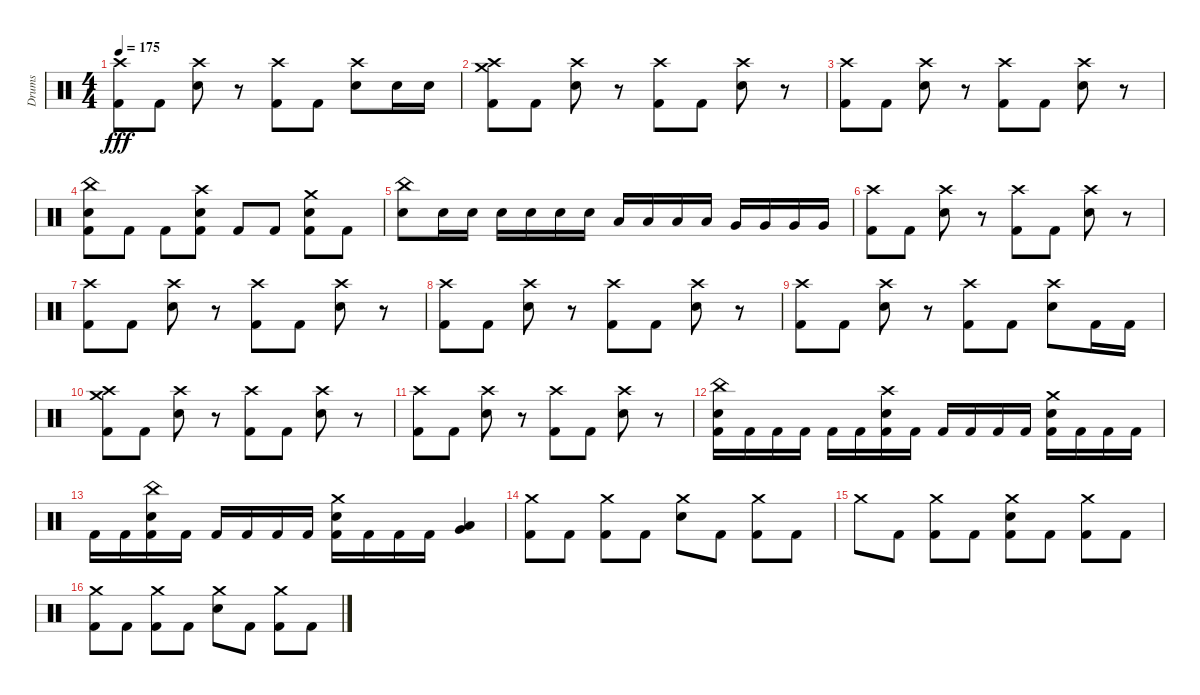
\track ("Drums" "Drums") {instrument percussion}
\staff {score}
\articulation defaults
\ts (4 4)
\tempo 175
\clef neutral
\ks c
("Crash high (hit)" "Kick (hit) 2").8{dy fff} "Kick (hit) 2".8 ("Crash high (hit)" "Snare (hit) 2").8 r.8 ("Crash high (hit)" "Kick (hit) 2").8 "Kick (hit) 2".8 ("Crash high (hit)" "Snare (hit) 2").8 "Snare (hit) 2".16 "Snare (hit) 2".16 |
("Crash high (hit)" "Crash medium (hit)" "Kick (hit) 2").8 "Kick (hit) 2".8 ("Crash high (hit)" "Snare (hit) 2").8 r.8 ("Crash high (hit)" "Kick (hit) 2").8 "Kick (hit) 2".8 ("Crash high (hit)" "Snare (hit) 2").8 r.8 |
("Crash high (hit)" "Kick (hit) 2").8 "Kick (hit) 2".8 ("Crash high (hit)" "Snare (hit) 2").8 r.8 ("Crash high (hit)" "Kick (hit) 2").8 "Kick (hit) 2".8 ("Crash high (hit)" "Snare (hit) 2").8 r.8 |
("China (hit)" "Snare (hit) 2" "Kick (hit) 2").8 "Kick (hit) 2".8 "Kick (hit) 2".8 ("Crash high (hit)" "Snare (hit) 2" "Kick (hit) 2").8 "Kick (hit) 2".8 "Kick (hit) 2".8 ("Crash medium (hit)" "Snare (hit) 2" "Kick (hit) 2").8 "Kick (hit) 2".8 |
("China (hit)" "Snare (hit) 2").8 "Snare (hit) 2".16 "Snare (hit) 2".16 "Snare (hit) 2".16 "Snare (hit) 2".16 "Snare (hit) 2".16 "Snare (hit) 2".16 "Low Tom (hit)".16 "Low Tom (hit)".16 "Low Tom (hit)".16 "Low Tom (hit)".16 "Very Low Tom (hit)".16 "Very Low Tom (hit)".16 "Very Low Tom (hit)".16 "Very Low Tom (hit)".16 |
("Crash high (hit)" "Kick (hit) 2").8 "Kick (hit) 2".8 ("Crash high (hit)" "Snare (hit) 2").8 r.8 ("Crash high (hit)" "Kick (hit) 2").8 "Kick (hit) 2".8 ("Crash high (hit)" "Snare (hit) 2").8 r.8 |
("Crash high (hit)" "Kick (hit) 2").8 "Kick (hit) 2".8 ("Crash high (hit)" "Snare (hit) 2").8 r.8 ("Crash high (hit)" "Kick (hit) 2").8 "Kick (hit) 2".8 ("Crash high (hit)" "Snare (hit) 2").8 r.8 |
("Crash high (hit)" "Kick (hit) 2").8 "Kick (hit) 2".8 ("Crash high (hit)" "Snare (hit) 2").8 r.8 ("Crash high (hit)" "Kick (hit) 2").8 "Kick (hit) 2".8 ("Crash high (hit)" "Snare (hit) 2").8 r.8 |
("Crash high (hit)" "Kick (hit) 2").8 "Kick (hit) 2".8 ("Crash high (hit)" "Snare (hit) 2").8 r.8 ("Crash high (hit)" "Kick (hit) 2").8 "Kick (hit) 2".8 ("Crash high (hit)" "Snare (hit) 2").8 "Kick (hit) 2".16 "Kick (hit) 2".16 |
("Crash high (hit)" "Crash medium (hit)" "Kick (hit) 2").8 "Kick (hit) 2".8 ("Crash high (hit)" "Snare (hit) 2").8 r.8 ("Crash high (hit)" "Kick (hit) 2").8 "Kick (hit) 2".8 ("Crash high (hit)" "Snare (hit) 2").8 r.8 |
("Crash high (hit)" "Kick (hit) 2").8 "Kick (hit) 2".8 ("Crash high (hit)" "Snare (hit) 2").8 r.8 ("Crash high (hit)" "Kick (hit) 2").8 "Kick (hit) 2".8 ("Crash high (hit)" "Snare (hit) 2").8 r.8 |
("China (hit)" "Snare (hit) 2" "Kick (hit) 2").16 "Kick (hit) 2".16 "Kick (hit) 2".16 "Kick (hit) 2".16 "Kick (hit) 2".16 "Kick (hit) 2".16 ("Crash high (hit)" "Snare (hit) 2" "Kick (hit) 2").16 "Kick (hit) 2".16 "Kick (hit) 2".16 "Kick (hit) 2".16 "Kick (hit) 2".16 "Kick (hit) 2".16 ("Crash medium (hit)" "Snare (hit) 2" "Kick (hit) 2").16 "Kick (hit) 2".16 "Kick (hit) 2".16 "Kick (hit) 2".16 |
"Kick (hit) 2".16 "Kick (hit) 2".16 ("China (hit)" "Snare (hit) 2" "Kick (hit) 2").16 "Kick (hit) 2".16 "Kick (hit) 2".16 "Kick (hit) 2".16 "Kick (hit) 2".16 "Kick (hit) 2".16 ("Crash medium (hit)" "Snare (hit) 2" "Kick (hit) 2").16 "Kick (hit) 2".16 "Kick (hit) 2".16 "Kick (hit) 2".16 ("Low Tom (hit)" "Very Low Tom (hit)").4 |
("Crash medium (hit)" "Kick (hit) 2").8 "Kick (hit) 2".8 ("Crash medium (hit)" "Kick (hit) 2").8 "Kick (hit) 2".8 ("Crash medium (hit)" "Snare (hit) 2").8 "Kick (hit) 2".8 ("Crash medium (hit)" "Kick (hit) 2").8 "Kick (hit) 2".8 |
"Crash medium (hit)".8 "Kick (hit) 2".8 ("Crash medium (hit)" "Kick (hit) 2").8 "Kick (hit) 2".8 ("Crash medium (hit)" "Snare (hit) 2" "Kick (hit) 2").8 "Kick (hit) 2".8 ("Crash medium (hit)" "Kick (hit) 2").8 "Kick (hit) 2".8 |
("Crash medium (hit)" "Kick (hit) 2").8 "Kick (hit) 2".8 ("Crash medium (hit)" "Kick (hit) 2").8 "Kick (hit) 2".8 ("Crash medium (hit)" "Snare (hit) 2").8 "Kick (hit) 2".8 ("Crash medium (hit)" "Kick (hit) 2").8 "Kick (hit) 2".8
